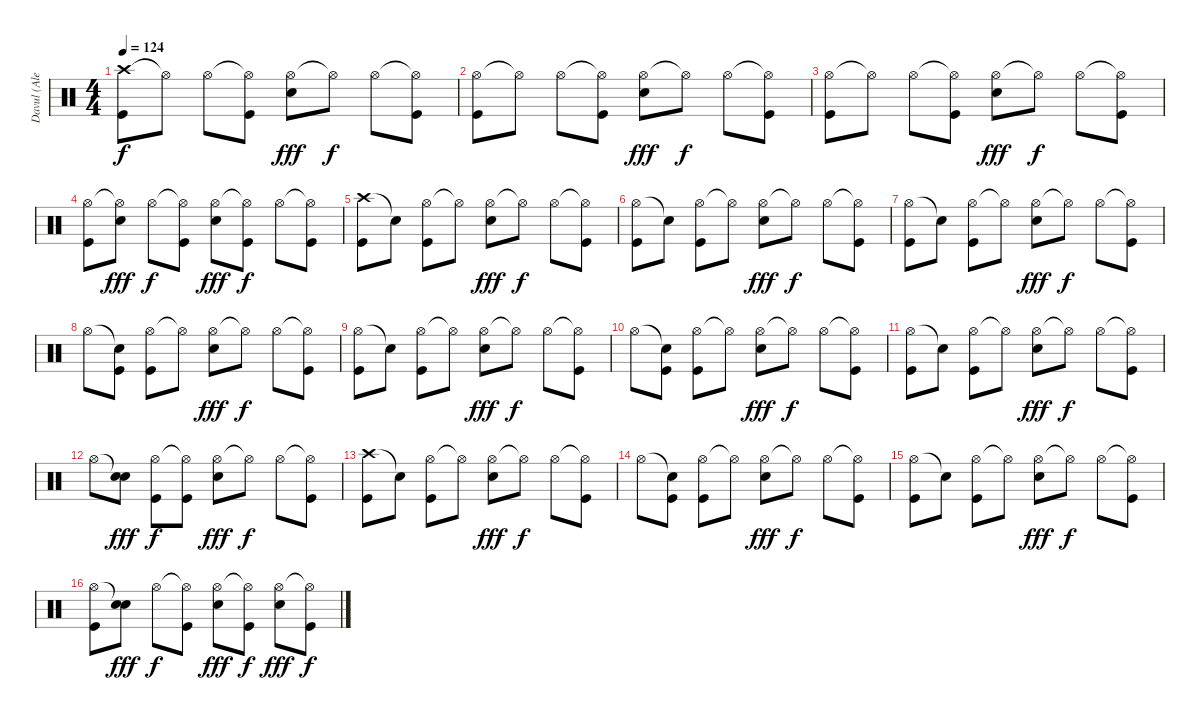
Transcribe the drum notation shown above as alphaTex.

\track ("Davul (Alen)" "Davul (Ale") {instrument percussion}
\staff {score}
\articulation defaults
\ts (4 4)
\tempo 124
\clef neutral
\ks c
("Crash high (hit)" "Kick (hit)").8{dy f} "Hi-Hat (open)"{t}.8 "Hi-Hat (open)".8 ("Hi-Hat (open)"{t} "Kick (hit)").8 ("Hi-Hat (open)" "Electric Snare (hit)").8{dy fff} "Hi-Hat (open)"{t}.8{dy f} "Hi-Hat (open)".8 ("Hi-Hat (open)"{t} "Kick (hit)").8 |
("Hi-Hat (open)" "Kick (hit)").8 "Hi-Hat (open)"{t}.8 "Hi-Hat (open)".8 ("Hi-Hat (open)"{t} "Kick (hit)").8 ("Hi-Hat (open)" "Electric Snare (hit)").8{dy fff} "Hi-Hat (open)"{t}.8{dy f} "Hi-Hat (open)".8 ("Hi-Hat (open)"{t} "Kick (hit)").8 |
("Hi-Hat (open)" "Kick (hit)").8 "Hi-Hat (open)"{t}.8 "Hi-Hat (open)".8 ("Hi-Hat (open)"{t} "Kick (hit)").8 ("Hi-Hat (open)" "Electric Snare (hit)").8{dy fff} "Hi-Hat (open)"{t}.8{dy f} "Hi-Hat (open)".8 ("Hi-Hat (open)"{t} "Kick (hit)").8 |
("Hi-Hat (open)" "Kick (hit)").8 ("Hi-Hat (open)"{t} "Electric Snare (hit)").8{dy fff} "Hi-Hat (open)".8{dy f} ("Hi-Hat (open)"{t} "Kick (hit)").8 ("Hi-Hat (open)" "Electric Snare (hit)").8{dy fff} ("Hi-Hat (open)"{t} "Kick (hit)").8{dy f} "Hi-Hat (open)".8 ("Hi-Hat (open)"{t} "Kick (hit)").8 |
("Crash high (hit)" "Kick (hit)").8 "Snare (hit)"{t}.8 ("Hi-Hat (open)" "Kick (hit)").8 "Hi-Hat (open)"{t}.8 ("Hi-Hat (open)" "Electric Snare (hit)").8{dy fff} "Hi-Hat (open)"{t}.8{dy f} "Hi-Hat (open)".8 ("Hi-Hat (open)"{t} "Kick (hit)").8 |
("Hi-Hat (open)" "Kick (hit)").8 "Snare (hit)"{t}.8 ("Hi-Hat (open)" "Kick (hit)").8 "Hi-Hat (open)"{t}.8 ("Hi-Hat (open)" "Electric Snare (hit)").8{dy fff} "Hi-Hat (open)"{t}.8{dy f} "Hi-Hat (open)".8 ("Hi-Hat (open)"{t} "Kick (hit)").8 |
("Hi-Hat (open)" "Kick (hit)").8 "Snare (hit)"{t}.8 ("Hi-Hat (open)" "Kick (hit)").8 "Hi-Hat (open)"{t}.8 ("Hi-Hat (open)" "Electric Snare (hit)").8{dy fff} "Hi-Hat (open)"{t}.8{dy f} "Hi-Hat (open)".8 ("Hi-Hat (open)"{t} "Kick (hit)").8 |
"Hi-Hat (open)".8 ("Snare (hit)"{t} "Kick (hit)").8 ("Hi-Hat (open)" "Kick (hit)").8 "Hi-Hat (open)"{t}.8 ("Hi-Hat (open)" "Electric Snare (hit)").8{dy fff} "Hi-Hat (open)"{t}.8{dy f} "Hi-Hat (open)".8 ("Hi-Hat (open)"{t} "Kick (hit)").8 |
("Hi-Hat (open)" "Kick (hit)").8 "Snare (hit)"{t}.8 ("Hi-Hat (open)" "Kick (hit)").8 "Hi-Hat (open)"{t}.8 ("Hi-Hat (open)" "Electric Snare (hit)").8{dy fff} "Hi-Hat (open)"{t}.8{dy f} "Hi-Hat (open)".8 ("Hi-Hat (open)"{t} "Kick (hit)").8 |
"Hi-Hat (open)".8 ("Snare (hit)"{t} "Kick (hit)").8 ("Hi-Hat (open)" "Kick (hit)").8 "Hi-Hat (open)"{t}.8 ("Hi-Hat (open)" "Electric Snare (hit)").8{dy fff} "Hi-Hat (open)"{t}.8{dy f} "Hi-Hat (open)".8 ("Hi-Hat (open)"{t} "Kick (hit)").8 |
("Hi-Hat (open)" "Kick (hit)").8 "Snare (hit)"{t}.8 ("Hi-Hat (open)" "Kick (hit)").8 "Hi-Hat (open)"{t}.8 ("Hi-Hat (open)" "Electric Snare (hit)").8{dy fff} "Hi-Hat (open)"{t}.8{dy f} "Hi-Hat (open)".8 ("Hi-Hat (open)"{t} "Kick (hit)").8 |
"Hi-Hat (open)".8 ("Snare (hit)"{t} "Electric Snare (hit)").8{dy fff} ("Hi-Hat (open)" "Kick (hit)").8{dy f} ("Hi-Hat (open)"{t} "Kick (hit)").8 ("Hi-Hat (open)" "Electric Snare (hit)").8{dy fff} "Hi-Hat (open)"{t}.8{dy f} "Hi-Hat (open)".8 ("Hi-Hat (open)"{t} "Kick (hit)").8 |
("Crash high (hit)" "Kick (hit)").8 "Snare (hit)"{t}.8 ("Hi-Hat (open)" "Kick (hit)").8 "Hi-Hat (open)"{t}.8 ("Hi-Hat (open)" "Electric Snare (hit)").8{dy fff} "Hi-Hat (open)"{t}.8{dy f} "Hi-Hat (open)".8 ("Hi-Hat (open)"{t} "Kick (hit)").8 |
"Hi-Hat (open)".8 ("Snare (hit)"{t} "Kick (hit)").8 ("Hi-Hat (open)" "Kick (hit)").8 "Hi-Hat (open)"{t}.8 ("Hi-Hat (open)" "Electric Snare (hit)").8{dy fff} "Hi-Hat (open)"{t}.8{dy f} "Hi-Hat (open)".8 ("Hi-Hat (open)"{t} "Kick (hit)").8 |
("Hi-Hat (open)" "Kick (hit)").8 "Snare (hit)"{t}.8 ("Hi-Hat (open)" "Kick (hit)").8 "Hi-Hat (open)"{t}.8 ("Hi-Hat (open)" "Electric Snare (hit)").8{dy fff} "Hi-Hat (open)"{t}.8{dy f} "Hi-Hat (open)".8 ("Hi-Hat (open)"{t} "Kick (hit)").8 |
("Hi-Hat (open)" "Kick (hit)").8 ("Snare (hit)"{t} "Electric Snare (hit)").8{dy fff} "Hi-Hat (open)".8{dy f} ("Hi-Hat (open)"{t} "Kick (hit)").8 ("Hi-Hat (open)" "Electric Snare (hit)").8{dy fff} ("Hi-Hat (open)"{t} "Kick (hit)").8{dy f} ("Hi-Hat (open)" "Electric Snare (hit)").8{dy fff} ("Hi-Hat (open)"{t} "Kick (hit)").8{dy f}
